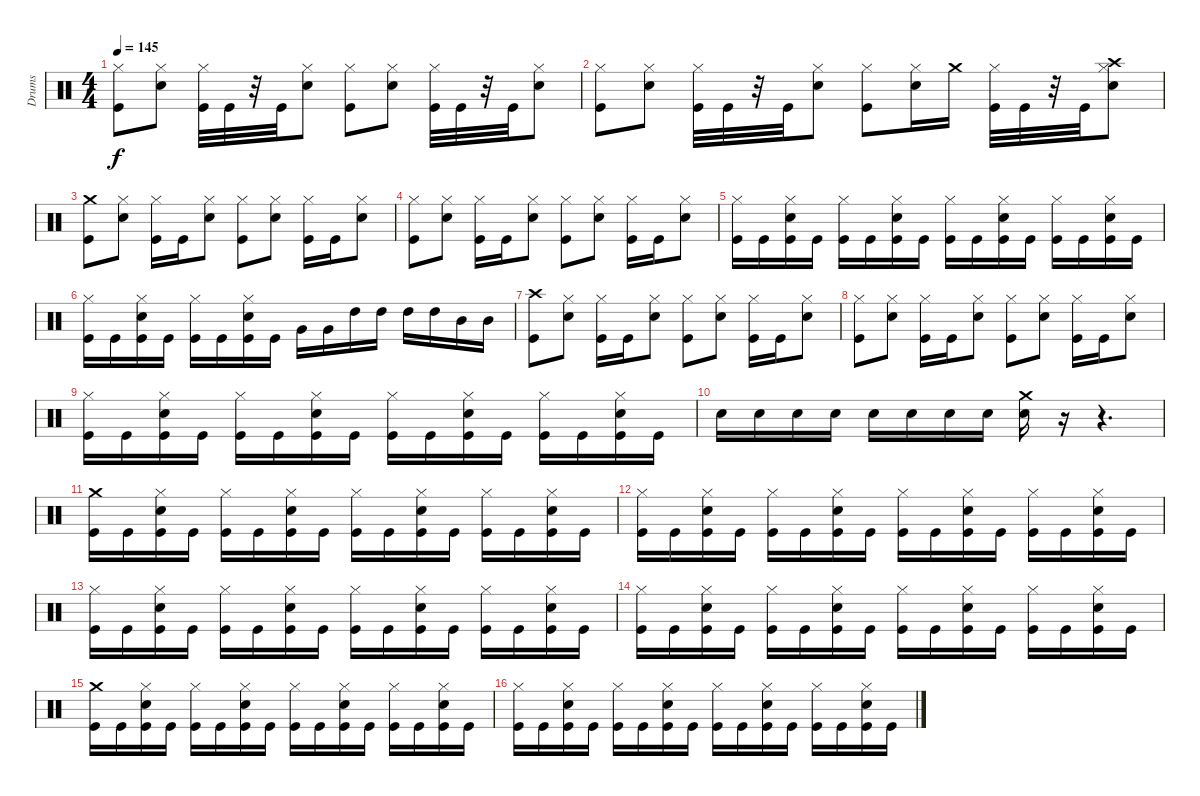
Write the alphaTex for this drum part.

\track ("Drums" "Drums") {instrument percussion}
\staff {score}
\articulation defaults
\ts (4 4)
\tempo 145
\clef neutral
\ks c
("Hi-Hat (closed)" "Kick (hit)").8{dy f} ("Hi-Hat (closed)" "Snare (hit) 2").8 ("Hi-Hat (closed)" "Kick (hit)").32 "Kick (hit)".32 r.32 "Kick (hit)".32 ("Hi-Hat (closed)" "Snare (hit) 2").8 ("Hi-Hat (closed)" "Kick (hit)").8 ("Hi-Hat (closed)" "Snare (hit) 2").8 ("Hi-Hat (closed)" "Kick (hit)").32 "Kick (hit)".32 r.32 "Kick (hit)".32 ("Hi-Hat (closed)" "Snare (hit) 2").8 |
("Hi-Hat (closed)" "Kick (hit)").8 ("Hi-Hat (closed)" "Snare (hit) 2").8 ("Hi-Hat (closed)" "Kick (hit)").32 "Kick (hit)".32 r.32 "Kick (hit)".32 ("Hi-Hat (closed)" "Snare (hit) 2").8 ("Hi-Hat (closed)" "Kick (hit)").8 ("Hi-Hat (closed)" "Snare (hit) 2").16 "Crash medium (hit)".16 ("Hi-Hat (closed)" "Kick (hit)").32 "Kick (hit)".32 r.32 "Kick (hit)".32 ("Crash high (hit)" "Hi-Hat (closed)" "Snare (hit) 2").8 |
("Crash medium (hit)" "Kick (hit)").8 ("Hi-Hat (closed)" "Snare (hit) 2").8 ("Hi-Hat (closed)" "Kick (hit)").16 "Kick (hit)".16 ("Hi-Hat (closed)" "Snare (hit) 2").8 ("Hi-Hat (closed)" "Kick (hit)").8 ("Hi-Hat (closed)" "Snare (hit) 2").8 ("Hi-Hat (closed)" "Kick (hit)").16 "Kick (hit)".16 ("Hi-Hat (closed)" "Snare (hit) 2").8 |
("Hi-Hat (closed)" "Kick (hit)").8 ("Hi-Hat (closed)" "Snare (hit) 2").8 ("Hi-Hat (closed)" "Kick (hit)").16 "Kick (hit)".16 ("Hi-Hat (closed)" "Snare (hit) 2").8 ("Hi-Hat (closed)" "Kick (hit)").8 ("Hi-Hat (closed)" "Snare (hit) 2").8 ("Hi-Hat (closed)" "Kick (hit)").16 "Kick (hit)".16 ("Hi-Hat (closed)" "Snare (hit) 2").8 |
("Hi-Hat (closed)" "Kick (hit)").16 "Kick (hit)".16 ("Hi-Hat (closed)" "Snare (hit) 2" "Kick (hit)").16 "Kick (hit)".16 ("Hi-Hat (closed)" "Kick (hit)").16 "Kick (hit)".16 ("Hi-Hat (closed)" "Snare (hit) 2" "Kick (hit)").16 "Kick (hit)".16 ("Hi-Hat (closed)" "Kick (hit)").16 "Kick (hit)".16 ("Hi-Hat (closed)" "Snare (hit) 2" "Kick (hit)").16 "Kick (hit)".16 ("Hi-Hat (closed)" "Kick (hit)").16 "Kick (hit)".16 ("Hi-Hat (closed)" "Snare (hit) 2" "Kick (hit)").16 "Kick (hit)".16 |
("Hi-Hat (closed)" "Kick (hit)").16 "Kick (hit)".16 ("Hi-Hat (closed)" "Snare (hit) 2" "Kick (hit)").16 "Kick (hit)".16 ("Hi-Hat (closed)" "Kick (hit)").16 "Kick (hit)".16 ("Hi-Hat (closed)" "Snare (hit) 2" "Kick (hit)").16 "Kick (hit)".16 "Very Low Tom (hit)".16 "Very Low Tom (hit)".16 "High Tom (hit)".16 "High Tom (hit)".16 "High Tom (hit)".16 "High Tom (hit)".16 "Mid Tom (hit)".16 "Mid Tom (hit)".16 |
("Kick (hit)" "Crash high (hit)").8 ("Hi-Hat (closed)" "Snare (hit) 2").8 ("Hi-Hat (closed)" "Kick (hit)").16 "Kick (hit)".16 ("Hi-Hat (closed)" "Snare (hit) 2").8 ("Hi-Hat (closed)" "Kick (hit)").8 ("Hi-Hat (closed)" "Snare (hit) 2").8 ("Hi-Hat (closed)" "Kick (hit)").16 "Kick (hit)".16 ("Hi-Hat (closed)" "Snare (hit) 2").8 |
("Hi-Hat (closed)" "Kick (hit)").8 ("Hi-Hat (closed)" "Snare (hit) 2").8 ("Hi-Hat (closed)" "Kick (hit)").16 "Kick (hit)".16 ("Hi-Hat (closed)" "Snare (hit) 2").8 ("Hi-Hat (closed)" "Kick (hit)").8 ("Hi-Hat (closed)" "Snare (hit) 2").8 ("Hi-Hat (closed)" "Kick (hit)").16 "Kick (hit)".16 ("Hi-Hat (closed)" "Snare (hit) 2").8 |
("Hi-Hat (closed)" "Kick (hit)").16 "Kick (hit)".16 ("Hi-Hat (closed)" "Snare (hit) 2" "Kick (hit)").16 "Kick (hit)".16 ("Hi-Hat (closed)" "Kick (hit)").16 "Kick (hit)".16 ("Hi-Hat (closed)" "Snare (hit) 2" "Kick (hit)").16 "Kick (hit)".16 ("Hi-Hat (closed)" "Kick (hit)").16 "Kick (hit)".16 ("Hi-Hat (closed)" "Snare (hit) 2" "Kick (hit)").16 "Kick (hit)".16 ("Hi-Hat (closed)" "Kick (hit)").16 "Kick (hit)".16 ("Hi-Hat (closed)" "Snare (hit) 2" "Kick (hit)").16 "Kick (hit)".16 |
"Snare (hit) 2".16 "Snare (hit) 2".16 "Snare (hit) 2".16 "Snare (hit) 2".16 "Snare (hit) 2".16 "Snare (hit) 2".16 "Snare (hit) 2".16 "Snare (hit) 2".16 ("Crash medium (hit)" "Snare (hit) 2").16 r.16 r.4{d} |
("Crash medium (hit)" "Kick (hit)").16 "Kick (hit)".16 ("Hi-Hat (closed)" "Snare (hit) 2" "Kick (hit)").16 "Kick (hit)".16 ("Hi-Hat (closed)" "Kick (hit)").16 "Kick (hit)".16 ("Hi-Hat (closed)" "Snare (hit) 2" "Kick (hit)").16 "Kick (hit)".16 ("Hi-Hat (closed)" "Kick (hit)").16 "Kick (hit)".16 ("Hi-Hat (closed)" "Snare (hit) 2" "Kick (hit)").16 "Kick (hit)".16 ("Hi-Hat (closed)" "Kick (hit)").16 "Kick (hit)".16 ("Hi-Hat (closed)" "Snare (hit) 2" "Kick (hit)").16 "Kick (hit)".16 |
("Hi-Hat (closed)" "Kick (hit)").16 "Kick (hit)".16 ("Hi-Hat (closed)" "Snare (hit) 2" "Kick (hit)").16 "Kick (hit)".16 ("Hi-Hat (closed)" "Kick (hit)").16 "Kick (hit)".16 ("Hi-Hat (closed)" "Snare (hit) 2" "Kick (hit)").16 "Kick (hit)".16 ("Hi-Hat (closed)" "Kick (hit)").16 "Kick (hit)".16 ("Hi-Hat (closed)" "Snare (hit) 2" "Kick (hit)").16 "Kick (hit)".16 ("Hi-Hat (closed)" "Kick (hit)").16 "Kick (hit)".16 ("Hi-Hat (closed)" "Snare (hit) 2" "Kick (hit)").16 "Kick (hit)".16 |
("Hi-Hat (closed)" "Kick (hit)").16 "Kick (hit)".16 ("Hi-Hat (closed)" "Snare (hit) 2" "Kick (hit)").16 "Kick (hit)".16 ("Hi-Hat (closed)" "Kick (hit)").16 "Kick (hit)".16 ("Hi-Hat (closed)" "Snare (hit) 2" "Kick (hit)").16 "Kick (hit)".16 ("Hi-Hat (closed)" "Kick (hit)").16 "Kick (hit)".16 ("Hi-Hat (closed)" "Snare (hit) 2" "Kick (hit)").16 "Kick (hit)".16 ("Hi-Hat (closed)" "Kick (hit)").16 "Kick (hit)".16 ("Hi-Hat (closed)" "Snare (hit) 2" "Kick (hit)").16 "Kick (hit)".16 |
("Hi-Hat (closed)" "Kick (hit)").16 "Kick (hit)".16 ("Hi-Hat (closed)" "Snare (hit) 2" "Kick (hit)").16 "Kick (hit)".16 ("Hi-Hat (closed)" "Kick (hit)").16 "Kick (hit)".16 ("Hi-Hat (closed)" "Snare (hit) 2" "Kick (hit)").16 "Kick (hit)".16 ("Hi-Hat (closed)" "Kick (hit)").16 "Kick (hit)".16 ("Hi-Hat (closed)" "Snare (hit) 2" "Kick (hit)").16 "Kick (hit)".16 ("Hi-Hat (closed)" "Kick (hit)").16 "Kick (hit)".16 ("Hi-Hat (closed)" "Snare (hit) 2" "Kick (hit)").16 "Kick (hit)".16 |
("Crash medium (hit)" "Kick (hit)").16 "Kick (hit)".16 ("Hi-Hat (closed)" "Snare (hit) 2" "Kick (hit)").16 "Kick (hit)".16 ("Hi-Hat (closed)" "Kick (hit)").16 "Kick (hit)".16 ("Hi-Hat (closed)" "Snare (hit) 2" "Kick (hit)").16 "Kick (hit)".16 ("Hi-Hat (closed)" "Kick (hit)").16 "Kick (hit)".16 ("Hi-Hat (closed)" "Snare (hit) 2" "Kick (hit)").16 "Kick (hit)".16 ("Hi-Hat (closed)" "Kick (hit)").16 "Kick (hit)".16 ("Hi-Hat (closed)" "Snare (hit) 2" "Kick (hit)").16 "Kick (hit)".16 |
("Hi-Hat (closed)" "Kick (hit)").16 "Kick (hit)".16 ("Hi-Hat (closed)" "Snare (hit) 2" "Kick (hit)").16 "Kick (hit)".16 ("Hi-Hat (closed)" "Kick (hit)").16 "Kick (hit)".16 ("Hi-Hat (closed)" "Snare (hit) 2" "Kick (hit)").16 "Kick (hit)".16 ("Hi-Hat (closed)" "Kick (hit)").16 "Kick (hit)".16 ("Hi-Hat (closed)" "Snare (hit) 2" "Kick (hit)").16 "Kick (hit)".16 ("Hi-Hat (closed)" "Kick (hit)").16 "Kick (hit)".16 ("Hi-Hat (closed)" "Snare (hit) 2" "Kick (hit)").16 "Kick (hit)".16
